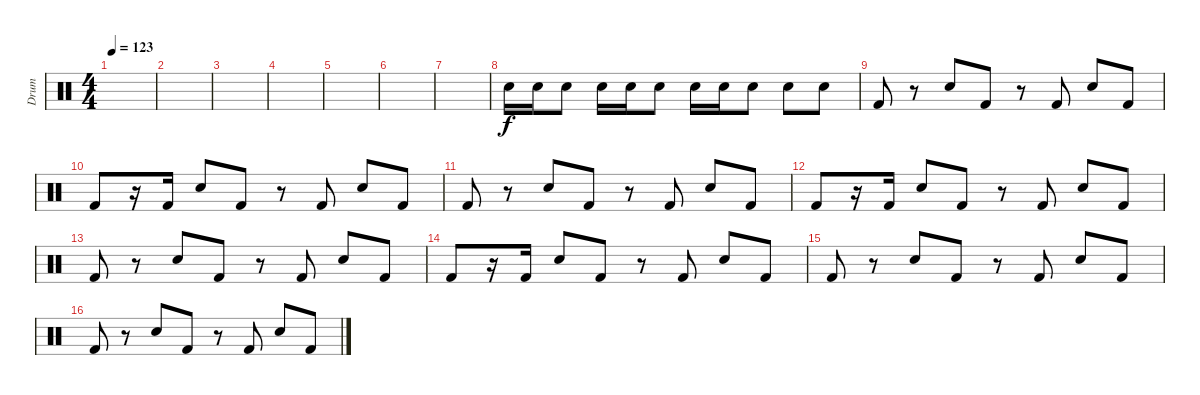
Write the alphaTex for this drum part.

\track ("Drum" "Drum") {instrument percussion}
\staff {score}
\articulation defaults
\ts (4 4)
\tempo 123
\clef neutral
\ks c
|
|
|
|
|
|
|
"Electric Snare (hit)".16 "Electric Snare (hit)".16 "Electric Snare (hit)".8 "Electric Snare (hit)".16 "Electric Snare (hit)".16 "Electric Snare (hit)".8 "Electric Snare (hit)".16 "Electric Snare (hit)".16 "Electric Snare (hit)".8 "Electric Snare (hit)".8 "Electric Snare (hit)".8 |
"Kick (hit) 2".8 r.8 "Electric Snare (hit)".8 "Kick (hit) 2".8 r.8 "Kick (hit) 2".8 "Electric Snare (hit)".8 "Kick (hit) 2".8 |
"Kick (hit) 2".8 r.16 "Kick (hit) 2".16 "Electric Snare (hit)".8 "Kick (hit) 2".8 r.8 "Kick (hit) 2".8 "Electric Snare (hit)".8 "Kick (hit) 2".8 |
"Kick (hit) 2".8 r.8 "Electric Snare (hit)".8 "Kick (hit) 2".8 r.8 "Kick (hit) 2".8 "Electric Snare (hit)".8 "Kick (hit) 2".8 |
"Kick (hit) 2".8 r.16 "Kick (hit) 2".16 "Electric Snare (hit)".8 "Kick (hit) 2".8 r.8 "Kick (hit) 2".8 "Electric Snare (hit)".8 "Kick (hit) 2".8 |
"Kick (hit) 2".8 r.8 "Electric Snare (hit)".8 "Kick (hit) 2".8 r.8 "Kick (hit) 2".8 "Electric Snare (hit)".8 "Kick (hit) 2".8 |
"Kick (hit) 2".8 r.16 "Kick (hit) 2".16 "Electric Snare (hit)".8 "Kick (hit) 2".8 r.8 "Kick (hit) 2".8 "Electric Snare (hit)".8 "Kick (hit) 2".8 |
"Kick (hit) 2".8 r.8 "Electric Snare (hit)".8 "Kick (hit) 2".8 r.8 "Kick (hit) 2".8 "Electric Snare (hit)".8 "Kick (hit) 2".8 |
"Kick (hit) 2".8 r.8 "Electric Snare (hit)".8 "Kick (hit) 2".8 r.8 "Kick (hit) 2".8 "Electric Snare (hit)".8 "Kick (hit) 2".8
